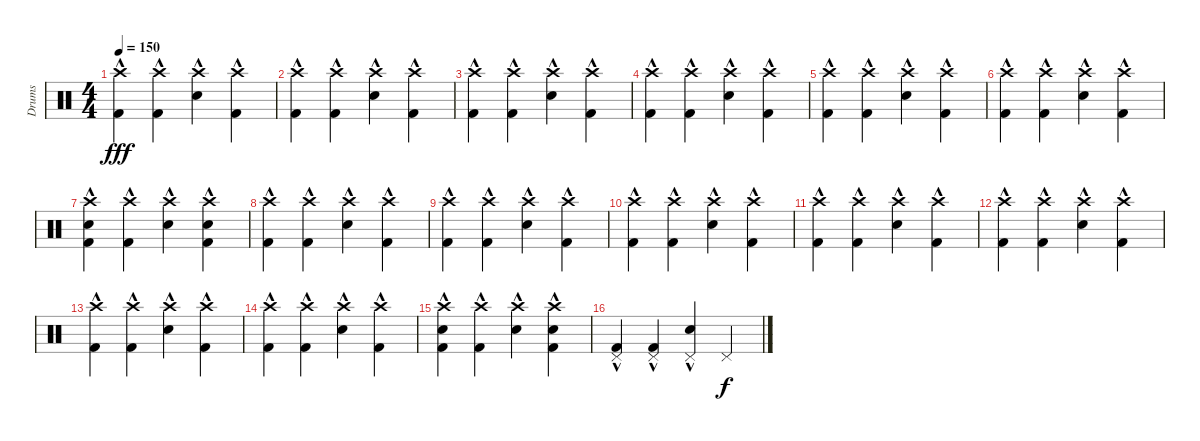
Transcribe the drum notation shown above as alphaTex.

\track ("Drums" "Drums") {instrument percussion}
\staff {score}
\articulation defaults
\ts (4 4)
\tempo 150
\clef neutral
\ks c
("Crash high (hit)" "Kick (hit) 2"{hac}).4{dy fff} ("Crash high (hit)" "Kick (hit) 2"{hac}).4 ("Crash high (hit)" "Electric Snare (hit)"{hac}).4 ("Crash high (hit)" "Kick (hit) 2"{hac}).4 |
("Crash high (hit)" "Kick (hit) 2"{hac}).4 ("Crash high (hit)" "Kick (hit) 2"{hac}).4 ("Crash high (hit)" "Electric Snare (hit)"{hac}).4 ("Crash high (hit)" "Kick (hit) 2"{hac}).4 |
("Crash high (hit)" "Kick (hit) 2"{hac}).4 ("Crash high (hit)" "Kick (hit) 2"{hac}).4 ("Crash high (hit)" "Electric Snare (hit)"{hac}).4 ("Crash high (hit)" "Kick (hit) 2"{hac}).4 |
("Crash high (hit)" "Kick (hit) 2"{hac}).4 ("Crash high (hit)" "Kick (hit) 2"{hac}).4 ("Crash high (hit)" "Electric Snare (hit)"{hac}).4 ("Crash high (hit)" "Kick (hit) 2"{hac}).4 |
("Crash high (hit)" "Kick (hit) 2"{hac}).4 ("Crash high (hit)" "Kick (hit) 2"{hac}).4 ("Crash high (hit)" "Electric Snare (hit)"{hac}).4 ("Crash high (hit)" "Kick (hit) 2"{hac}).4 |
("Crash high (hit)" "Kick (hit) 2"{hac}).4 ("Crash high (hit)" "Kick (hit) 2"{hac}).4 ("Crash high (hit)" "Electric Snare (hit)"{hac}).4 ("Crash high (hit)" "Kick (hit) 2"{hac}).4 |
("Crash high (hit)" "Electric Snare (hit)" "Kick (hit) 2"{hac}).4 ("Crash high (hit)" "Kick (hit) 2"{hac}).4 ("Crash high (hit)" "Electric Snare (hit)"{hac}).4 ("Crash high (hit)" "Electric Snare (hit)" "Kick (hit) 2"{hac}).4 |
("Crash high (hit)" "Kick (hit) 2"{hac}).4 ("Crash high (hit)" "Kick (hit) 2"{hac}).4 ("Crash high (hit)" "Electric Snare (hit)"{hac}).4 ("Crash high (hit)" "Kick (hit) 2"{hac}).4 |
("Crash high (hit)" "Kick (hit) 2"{hac}).4 ("Crash high (hit)" "Kick (hit) 2"{hac}).4 ("Crash high (hit)" "Electric Snare (hit)"{hac}).4 ("Crash high (hit)" "Kick (hit) 2"{hac}).4 |
("Crash high (hit)" "Kick (hit) 2"{hac}).4 ("Crash high (hit)" "Kick (hit) 2"{hac}).4 ("Crash high (hit)" "Electric Snare (hit)"{hac}).4 ("Crash high (hit)" "Kick (hit) 2"{hac}).4 |
("Crash high (hit)" "Kick (hit) 2"{hac}).4 ("Crash high (hit)" "Kick (hit) 2"{hac}).4 ("Crash high (hit)" "Electric Snare (hit)"{hac}).4 ("Crash high (hit)" "Kick (hit) 2"{hac}).4 |
("Crash high (hit)" "Kick (hit) 2"{hac}).4 ("Crash high (hit)" "Kick (hit) 2"{hac}).4 ("Crash high (hit)" "Electric Snare (hit)"{hac}).4 ("Crash high (hit)" "Kick (hit) 2"{hac}).4 |
("Crash high (hit)" "Kick (hit) 2"{hac}).4 ("Crash high (hit)" "Kick (hit) 2"{hac}).4 ("Crash high (hit)" "Electric Snare (hit)"{hac}).4 ("Crash high (hit)" "Kick (hit) 2"{hac}).4 |
("Crash high (hit)" "Kick (hit) 2"{hac}).4 ("Crash high (hit)" "Kick (hit) 2"{hac}).4 ("Crash high (hit)" "Electric Snare (hit)"{hac}).4 ("Crash high (hit)" "Kick (hit) 2"{hac}).4 |
("Crash high (hit)" "Electric Snare (hit)" "Kick (hit) 2"{hac}).4 ("Crash high (hit)" "Kick (hit) 2"{hac}).4 ("Crash high (hit)" "Electric Snare (hit)"{hac}).4 ("Crash high (hit)" "Electric Snare (hit)" "Kick (hit) 2"{hac}).4 |
("Pedal Hi-Hat (hit)" "Kick (hit) 2"{hac}).4 ("Pedal Hi-Hat (hit)" "Kick (hit) 2"{hac}).4 ("Pedal Hi-Hat (hit)" "Electric Snare (hit)"{hac}).4 "Pedal Hi-Hat (hit)".4{dy f}
